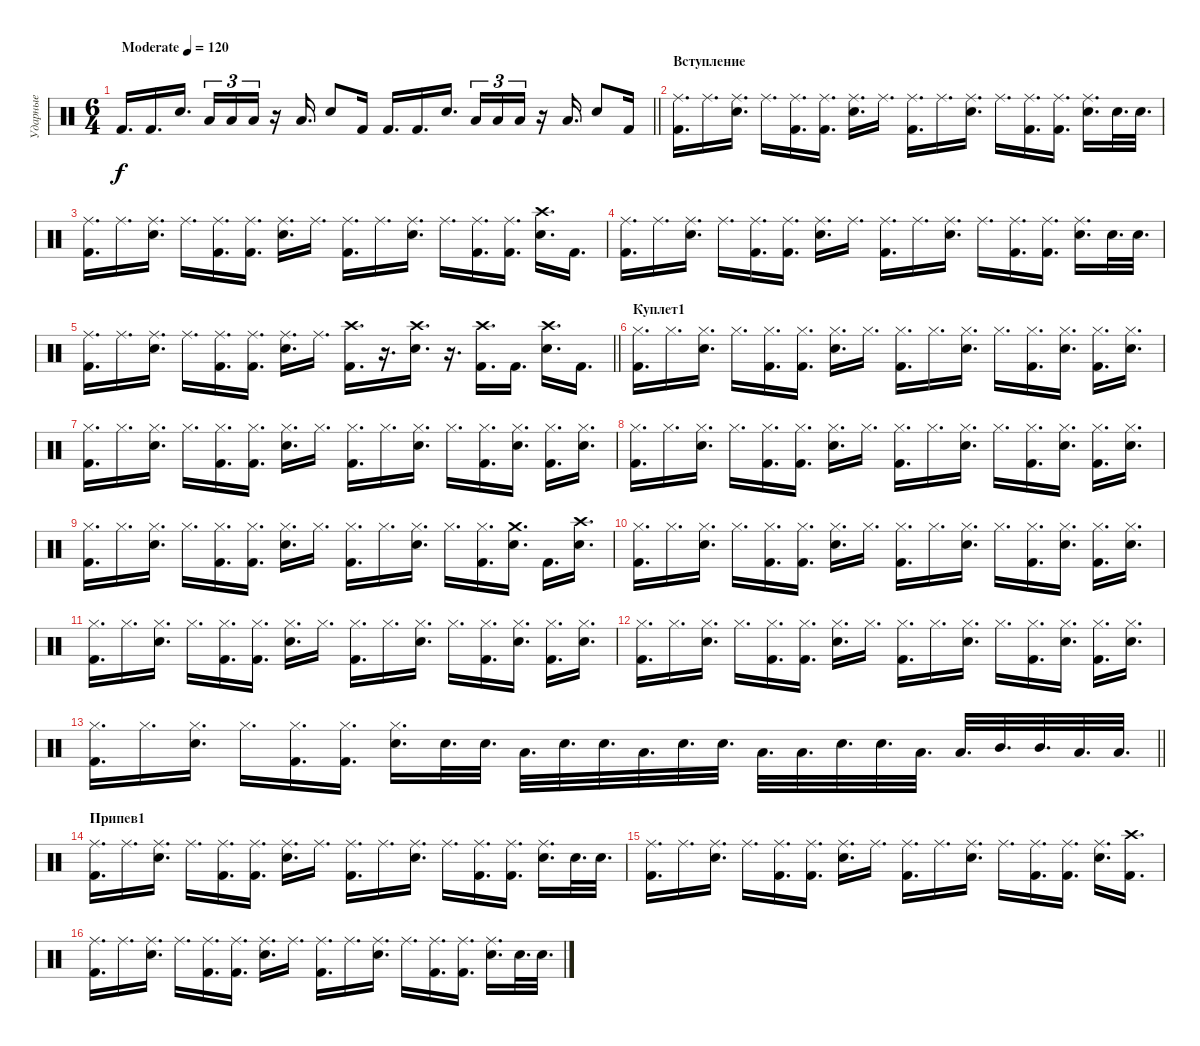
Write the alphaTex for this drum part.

\track ("Ударные" "Ударные") {instrument percussion}
\staff {score}
\articulation defaults
\ts (6 4)
\tempo (120 "Moderate")
\clef neutral
\barLineRight lightlight
\ks c "Kick (hit) 2".16{d dy f} "Kick (hit) 2".16{d} "Electric Snare (hit)".16{d beam splitsecondary} "Low Floor Tom (hit)".16{tu (3 2)} "Low Floor Tom (hit)".16{tu (3 2)} "Low Floor Tom (hit)".16{tu (3 2)}
r.16 "Low Tom (hit)".16{d} "Electric Snare (hit)".8 "Kick (hit) 2".16 "Kick (hit) 2".16{d} "Kick (hit) 2".16{d} "Electric Snare (hit)".16{d beam splitsecondary} "Low Floor Tom (hit)".16{tu (3 2)} "Low Floor Tom (hit)".16{tu (3 2)} "Low Floor Tom (hit)".16{tu (3 2)} r.16 "Low Tom (hit)".16{d} "Electric Snare (hit)".8 "Kick (hit) 2".16 |
\section ("" "Вступление")
("Ride (middle)" "Kick (hit) 2").16{d} "Ride (middle)".16{d} ("Ride (middle)" "Electric Snare (hit)").16{d} "Ride (middle)".16{d} ("Ride (middle)" "Kick (hit) 2").16{d} ("Ride (middle)" "Kick (hit) 2").16{d} ("Ride (middle)" "Electric Snare (hit)").16{d} "Ride (middle)".16{d} ("Ride (middle)" "Kick (hit) 2").16{d} "Ride (middle)".16{d} ("Ride (middle)" "Electric Snare (hit)").16{d} "Ride (middle)".16{d} ("Ride (middle)" "Kick (hit) 2").16{d} ("Ride (middle)" "Kick (hit) 2").16{d} ("Ride (middle)" "Electric Snare (hit)").16{d} "Electric Snare (hit)".32{d} "Electric Snare (hit)".32{d} |
("Ride (middle)" "Kick (hit) 2").16{d} "Ride (middle)".16{d} ("Ride (middle)" "Electric Snare (hit)").16{d} "Ride (middle)".16{d} ("Ride (middle)" "Kick (hit) 2").16{d} ("Ride (middle)" "Kick (hit) 2").16{d} ("Ride (middle)" "Electric Snare (hit)").16{d} "Ride (middle)".16{d} ("Ride (middle)" "Kick (hit) 2").16{d} "Ride (middle)".16{d} ("Ride (middle)" "Electric Snare (hit)").16{d} "Ride (middle)".16{d} ("Ride (middle)" "Kick (hit) 2").16{d} ("Ride (middle)" "Kick (hit) 2").16{d} ("Crash high (hit)" "Electric Snare (hit)").16{d} "Kick (hit) 2".16{d} |
("Ride (middle)" "Kick (hit) 2").16{d} "Ride (middle)".16{d} ("Ride (middle)" "Electric Snare (hit)").16{d} "Ride (middle)".16{d} ("Ride (middle)" "Kick (hit) 2").16{d} ("Ride (middle)" "Kick (hit) 2").16{d} ("Ride (middle)" "Electric Snare (hit)").16{d} "Ride (middle)".16{d} ("Ride (middle)" "Kick (hit) 2").16{d} "Ride (middle)".16{d} ("Ride (middle)" "Electric Snare (hit)").16{d} "Ride (middle)".16{d} ("Ride (middle)" "Kick (hit) 2").16{d} ("Ride (middle)" "Kick (hit) 2").16{d} ("Ride (middle)" "Electric Snare (hit)").16{d} "Electric Snare (hit)".32{d} "Electric Snare (hit)".32{d} |
\barLineRight lightlight
("Ride (middle)" "Kick (hit) 2").16{d} "Ride (middle)".16{d} ("Ride (middle)" "Electric Snare (hit)").16{d} "Ride (middle)".16{d} ("Ride (middle)" "Kick (hit) 2").16{d} ("Ride (middle)" "Kick (hit) 2").16{d} ("Ride (middle)" "Electric Snare (hit)").16{d} "Ride (middle)".16{d} ("Crash high (hit)" "Kick (hit) 2").16{d} r.16{d} ("Crash high (hit)" "Electric Snare (hit)").16{d} r.16{d} ("Crash high (hit)" "Kick (hit) 2").16{d} "Kick (hit) 2".16{d} ("Crash high (hit)" "Electric Snare (hit)").16{d} "Kick (hit) 2".16{d} |
\section ("" "Куплет1")
("Hi-Hat (closed)" "Kick (hit) 2").16{d} "Hi-Hat (closed)".16{d} ("Hi-Hat (closed)" "Electric Snare (hit)").16{d} "Hi-Hat (closed)".16{d} ("Hi-Hat (closed)" "Kick (hit) 2").16{d} ("Hi-Hat (closed)" "Kick (hit) 2").16{d} ("Hi-Hat (closed)" "Electric Snare (hit)").16{d} "Hi-Hat (closed)".16{d} ("Hi-Hat (closed)" "Kick (hit) 2").16{d} "Hi-Hat (closed)".16{d} ("Hi-Hat (closed)" "Electric Snare (hit)").16{d} "Hi-Hat (closed)".16{d} ("Hi-Hat (closed)" "Kick (hit) 2").16{d} ("Hi-Hat (closed)" "Electric Snare (hit)").16{d} ("Hi-Hat (closed)" "Kick (hit) 2").16{d} ("Hi-Hat (closed)" "Electric Snare (hit)").16{d} |
("Hi-Hat (closed)" "Kick (hit) 2").16{d} "Hi-Hat (closed)".16{d} ("Hi-Hat (closed)" "Electric Snare (hit)").16{d} "Hi-Hat (closed)".16{d} ("Hi-Hat (closed)" "Kick (hit) 2").16{d} ("Hi-Hat (closed)" "Kick (hit) 2").16{d} ("Hi-Hat (closed)" "Electric Snare (hit)").16{d} "Hi-Hat (closed)".16{d} ("Hi-Hat (closed)" "Kick (hit) 2").16{d} "Hi-Hat (closed)".16{d} ("Hi-Hat (closed)" "Electric Snare (hit)").16{d} "Hi-Hat (closed)".16{d} ("Hi-Hat (closed)" "Kick (hit) 2").16{d} ("Hi-Hat (closed)" "Electric Snare (hit)").16{d} ("Hi-Hat (closed)" "Kick (hit) 2").16{d} ("Hi-Hat (closed)" "Electric Snare (hit)").16{d} |
("Hi-Hat (closed)" "Kick (hit) 2").16{d} "Hi-Hat (closed)".16{d} ("Hi-Hat (closed)" "Electric Snare (hit)").16{d} "Hi-Hat (closed)".16{d} ("Hi-Hat (closed)" "Kick (hit) 2").16{d} ("Hi-Hat (closed)" "Kick (hit) 2").16{d} ("Hi-Hat (closed)" "Electric Snare (hit)").16{d} "Hi-Hat (closed)".16{d} ("Hi-Hat (closed)" "Kick (hit) 2").16{d} "Hi-Hat (closed)".16{d} ("Hi-Hat (closed)" "Electric Snare (hit)").16{d} "Hi-Hat (closed)".16{d} ("Hi-Hat (closed)" "Kick (hit) 2").16{d} ("Hi-Hat (closed)" "Electric Snare (hit)").16{d} ("Hi-Hat (closed)" "Kick (hit) 2").16{d} ("Hi-Hat (closed)" "Electric Snare (hit)").16{d} |
("Hi-Hat (closed)" "Kick (hit) 2").16{d} "Hi-Hat (closed)".16{d} ("Hi-Hat (closed)" "Electric Snare (hit)").16{d} "Hi-Hat (closed)".16{d} ("Hi-Hat (closed)" "Kick (hit) 2").16{d} ("Hi-Hat (closed)" "Kick (hit) 2").16{d} ("Hi-Hat (closed)" "Electric Snare (hit)").16{d} "Hi-Hat (closed)".16{d} ("Hi-Hat (closed)" "Kick (hit) 2").16{d} "Hi-Hat (closed)".16{d} ("Hi-Hat (closed)" "Electric Snare (hit)").16{d} "Hi-Hat (closed)".16{d} ("Hi-Hat (closed)" "Kick (hit) 2").16{d} ("Crash medium (hit)" "Electric Snare (hit)").16{d} "Kick (hit) 2".16{d} ("Crash high (hit)" "Electric Snare (hit)").16{d} |
("Hi-Hat (closed)" "Kick (hit) 2").16{d} "Hi-Hat (closed)".16{d} ("Hi-Hat (closed)" "Electric Snare (hit)").16{d} "Hi-Hat (closed)".16{d} ("Hi-Hat (closed)" "Kick (hit) 2").16{d} ("Hi-Hat (closed)" "Kick (hit) 2").16{d} ("Hi-Hat (closed)" "Electric Snare (hit)").16{d} "Hi-Hat (closed)".16{d} ("Hi-Hat (closed)" "Kick (hit) 2").16{d} "Hi-Hat (closed)".16{d} ("Hi-Hat (closed)" "Electric Snare (hit)").16{d} "Hi-Hat (closed)".16{d} ("Hi-Hat (closed)" "Kick (hit) 2").16{d} ("Hi-Hat (closed)" "Electric Snare (hit)").16{d} ("Hi-Hat (closed)" "Kick (hit) 2").16{d} ("Hi-Hat (closed)" "Electric Snare (hit)").16{d} |
("Hi-Hat (closed)" "Kick (hit) 2").16{d} "Hi-Hat (closed)".16{d} ("Hi-Hat (closed)" "Electric Snare (hit)").16{d} "Hi-Hat (closed)".16{d} ("Hi-Hat (closed)" "Kick (hit) 2").16{d} ("Hi-Hat (closed)" "Kick (hit) 2").16{d} ("Hi-Hat (closed)" "Electric Snare (hit)").16{d} "Hi-Hat (closed)".16{d} ("Hi-Hat (closed)" "Kick (hit) 2").16{d} "Hi-Hat (closed)".16{d} ("Hi-Hat (closed)" "Electric Snare (hit)").16{d} "Hi-Hat (closed)".16{d} ("Hi-Hat (closed)" "Kick (hit) 2").16{d} ("Hi-Hat (closed)" "Electric Snare (hit)").16{d} ("Hi-Hat (closed)" "Kick (hit) 2").16{d} ("Hi-Hat (closed)" "Electric Snare (hit)").16{d} |
("Hi-Hat (closed)" "Kick (hit) 2").16{d} "Hi-Hat (closed)".16{d} ("Hi-Hat (closed)" "Electric Snare (hit)").16{d} "Hi-Hat (closed)".16{d} ("Hi-Hat (closed)" "Kick (hit) 2").16{d} ("Hi-Hat (closed)" "Kick (hit) 2").16{d} ("Hi-Hat (closed)" "Electric Snare (hit)").16{d} "Hi-Hat (closed)".16{d} ("Hi-Hat (closed)" "Kick (hit) 2").16{d} "Hi-Hat (closed)".16{d} ("Hi-Hat (closed)" "Electric Snare (hit)").16{d} "Hi-Hat (closed)".16{d} ("Hi-Hat (closed)" "Kick (hit) 2").16{d} ("Hi-Hat (closed)" "Electric Snare (hit)").16{d} ("Hi-Hat (closed)" "Kick (hit) 2").16{d} ("Hi-Hat (closed)" "Electric Snare (hit)").16{d} |
\barLineRight lightlight
("Hi-Hat (closed)" "Kick (hit) 2").16{d} "Hi-Hat (closed)".16{d} ("Hi-Hat (closed)" "Electric Snare (hit)").16{d} "Hi-Hat (closed)".16{d} ("Hi-Hat (closed)" "Kick (hit) 2").16{d} ("Hi-Hat (closed)" "Kick (hit) 2").16{d} ("Hi-Hat (closed)" "Electric Snare (hit)").16{d} "Electric Snare (hit)".32{d} "Electric Snare (hit)".32{d} "Low Tom (hit)".32{d} "Electric Snare (hit)".32{d} "Electric Snare (hit)".32{d} "Low Tom (hit)".32{d} "Electric Snare (hit)".32{d} "Electric Snare (hit)".32{d} "Low Tom (hit)".32{d} "Low Tom (hit)".32{d} "Electric Snare (hit)".32{d} "Electric Snare (hit)".32{d} "Low Tom (hit)".32{d} "Low Tom (hit)".32{d} "Mid Tom (hit)".32{d} "Mid Tom (hit)".32{d} "Low Floor Tom (hit)".32{d} "Low Floor Tom (hit)".32{d} |
\section ("" "Припев1")
("Ride (middle)" "Kick (hit) 2").16{d} "Ride (middle)".16{d} ("Ride (middle)" "Electric Snare (hit)").16{d} "Ride (middle)".16{d} ("Ride (middle)" "Kick (hit) 2").16{d} ("Ride (middle)" "Kick (hit) 2").16{d} ("Ride (middle)" "Electric Snare (hit)").16{d} "Ride (middle)".16{d} ("Ride (middle)" "Kick (hit) 2").16{d} "Ride (middle)".16{d} ("Ride (middle)" "Electric Snare (hit)").16{d} "Ride (middle)".16{d} ("Ride (middle)" "Kick (hit) 2").16{d} ("Ride (middle)" "Kick (hit) 2").16{d} ("Ride (middle)" "Electric Snare (hit)").16{d} "Electric Snare (hit)".32{d} "Electric Snare (hit)".32{d} |
("Ride (middle)" "Kick (hit) 2").16{d} "Ride (middle)".16{d} ("Ride (middle)" "Electric Snare (hit)").16{d} "Ride (middle)".16{d} ("Ride (middle)" "Kick (hit) 2").16{d} ("Ride (middle)" "Kick (hit) 2").16{d} ("Ride (middle)" "Electric Snare (hit)").16{d} "Ride (middle)".16{d} ("Ride (middle)" "Kick (hit) 2").16{d} "Ride (middle)".16{d} ("Ride (middle)" "Electric Snare (hit)").16{d} "Ride (middle)".16{d} ("Ride (middle)" "Kick (hit) 2").16{d} ("Ride (middle)" "Kick (hit) 2").16{d} ("Ride (middle)" "Electric Snare (hit)").16{d} ("Crash high (hit)" "Kick (hit) 2").16{d} |
("Ride (middle)" "Kick (hit) 2").16{d} "Ride (middle)".16{d} ("Ride (middle)" "Electric Snare (hit)").16{d} "Ride (middle)".16{d} ("Ride (middle)" "Kick (hit) 2").16{d} ("Ride (middle)" "Kick (hit) 2").16{d} ("Ride (middle)" "Electric Snare (hit)").16{d} "Ride (middle)".16{d} ("Ride (middle)" "Kick (hit) 2").16{d} "Ride (middle)".16{d} ("Ride (middle)" "Electric Snare (hit)").16{d} "Ride (middle)".16{d} ("Ride (middle)" "Kick (hit) 2").16{d} ("Ride (middle)" "Kick (hit) 2").16{d} ("Ride (middle)" "Electric Snare (hit)").16{d} "Electric Snare (hit)".32{d} "Electric Snare (hit)".32{d}
